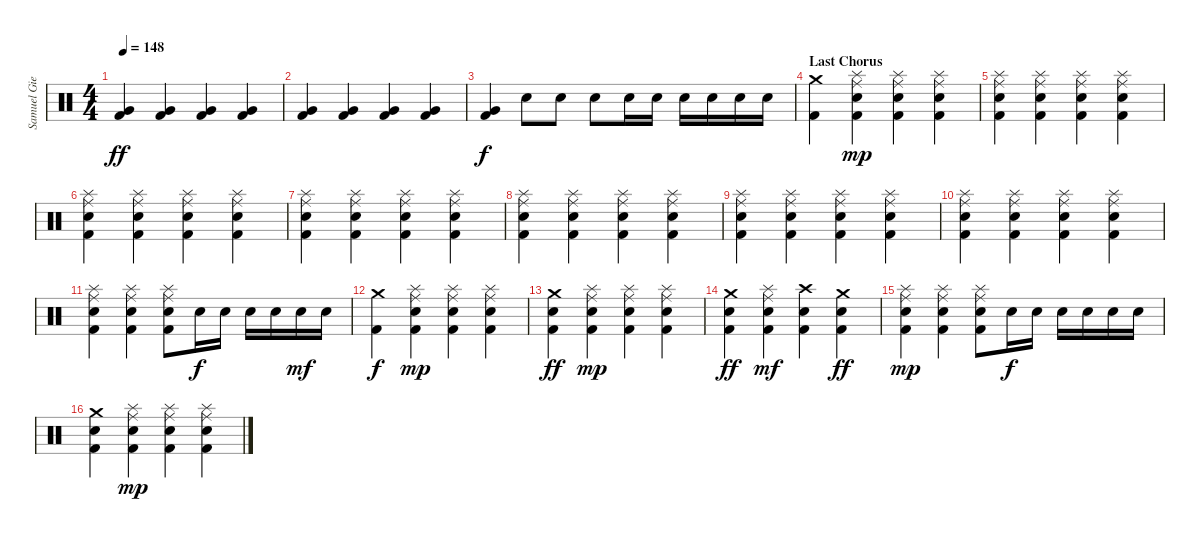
\track ("Samuel Giers - Drum" "Samuel Gie") {instrument percussion}
\staff {score}
\articulation defaults
\ts (4 4)
\tempo 148
\clef neutral
\ks c
("Very Low Tom (hit)" "Kick (hit) 2").4{dy ff} ("Very Low Tom (hit)" "Kick (hit) 2").4 ("Very Low Tom (hit)" "Kick (hit) 2").4 ("Very Low Tom (hit)" "Kick (hit) 2").4 |
("Very Low Tom (hit)" "Kick (hit) 2").4 ("Very Low Tom (hit)" "Kick (hit) 2").4 ("Very Low Tom (hit)" "Kick (hit) 2").4 ("Very Low Tom (hit)" "Kick (hit) 2").4 |
("Very Low Tom (hit)" "Kick (hit) 2").4{dy f} "Snare (hit) 2".8 "Snare (hit) 2".8 "Snare (hit) 2".8 "Snare (hit) 2".16 "Snare (hit) 2".16 "Snare (hit) 2".16 "Snare (hit) 2".16 "Snare (hit) 2".16 "Snare (hit) 2".16 |
\section ("" "Last Chorus")
("Crash medium (hit)" "Kick (hit) 2").4 ("Ride (middle)" "Splash (hit)" "Snare (hit) 2" "Kick (hit) 2").4{dy mp} ("Ride (middle)" "Splash (hit)" "Snare (hit) 2" "Kick (hit) 2").4 ("Ride (middle)" "Splash (hit)" "Snare (hit) 2" "Kick (hit) 2").4 |
("Ride (middle)" "Splash (hit)" "Snare (hit) 2" "Kick (hit) 2").4 ("Ride (middle)" "Splash (hit)" "Snare (hit) 2" "Kick (hit) 2").4 ("Ride (middle)" "Splash (hit)" "Snare (hit) 2" "Kick (hit) 2").4 ("Ride (middle)" "Splash (hit)" "Snare (hit) 2" "Kick (hit) 2").4 |
("Ride (middle)" "Splash (hit)" "Snare (hit) 2" "Kick (hit) 2").4 ("Ride (middle)" "Splash (hit)" "Snare (hit) 2" "Kick (hit) 2").4 ("Ride (middle)" "Splash (hit)" "Snare (hit) 2" "Kick (hit) 2").4 ("Ride (middle)" "Splash (hit)" "Snare (hit) 2" "Kick (hit) 2").4 |
("Ride (middle)" "Splash (hit)" "Snare (hit) 2" "Kick (hit) 2").4 ("Ride (middle)" "Splash (hit)" "Snare (hit) 2" "Kick (hit) 2").4 ("Ride (middle)" "Splash (hit)" "Snare (hit) 2" "Kick (hit) 2").4 ("Ride (middle)" "Splash (hit)" "Snare (hit) 2" "Kick (hit) 2").4 |
("Ride (middle)" "Splash (hit)" "Snare (hit) 2" "Kick (hit) 2").4 ("Ride (middle)" "Splash (hit)" "Snare (hit) 2" "Kick (hit) 2").4 ("Ride (middle)" "Splash (hit)" "Snare (hit) 2" "Kick (hit) 2").4 ("Ride (middle)" "Splash (hit)" "Snare (hit) 2" "Kick (hit) 2").4 |
("Ride (middle)" "Splash (hit)" "Snare (hit) 2" "Kick (hit) 2").4 ("Ride (middle)" "Splash (hit)" "Snare (hit) 2" "Kick (hit) 2").4 ("Ride (middle)" "Splash (hit)" "Snare (hit) 2" "Kick (hit) 2").4 ("Ride (middle)" "Splash (hit)" "Snare (hit) 2" "Kick (hit) 2").4 |
("Ride (middle)" "Splash (hit)" "Snare (hit) 2" "Kick (hit) 2").4 ("Ride (middle)" "Splash (hit)" "Snare (hit) 2" "Kick (hit) 2").4 ("Ride (middle)" "Splash (hit)" "Snare (hit) 2" "Kick (hit) 2").4 ("Ride (middle)" "Splash (hit)" "Snare (hit) 2" "Kick (hit) 2").4 |
("Ride (middle)" "Splash (hit)" "Snare (hit) 2" "Kick (hit) 2").4 ("Ride (middle)" "Splash (hit)" "Snare (hit) 2" "Kick (hit) 2").4 ("Ride (middle)" "Splash (hit)" "Snare (hit) 2" "Kick (hit) 2").8 "Snare (hit) 2".16{dy f} "Snare (hit) 2".16 "Snare (hit) 2".16 "Snare (hit) 2".16 "Snare (hit) 2".16{dy mf} "Snare (hit) 2".16 |
("Crash medium (hit)" "Kick (hit) 2").4{dy f} ("Ride (middle)" "Splash (hit)" "Snare (hit) 2" "Kick (hit) 2").4{dy mp} ("Ride (middle)" "Splash (hit)" "Snare (hit) 2" "Kick (hit) 2").4 ("Ride (middle)" "Splash (hit)" "Snare (hit) 2" "Kick (hit) 2").4 |
("Crash medium (hit)" "Snare (hit) 2" "Kick (hit) 2").4{dy ff} ("Ride (middle)" "Splash (hit)" "Snare (hit) 2" "Kick (hit) 2").4{dy mp} ("Ride (middle)" "Splash (hit)" "Snare (hit) 2" "Kick (hit) 2").4 ("Ride (middle)" "Splash (hit)" "Snare (hit) 2" "Kick (hit) 2").4 |
("Crash medium (hit)" "Snare (hit) 2" "Kick (hit) 2").4{dy ff} ("Ride (middle)" "Splash (hit)" "Snare (hit) 2" "Kick (hit) 2").4{dy mf} ("Crash high (hit)" "Snare (hit) 2" "Kick (hit) 2").4 ("Crash medium (hit)" "Snare (hit) 2" "Kick (hit) 2").4{dy ff} |
("Ride (middle)" "Splash (hit)" "Snare (hit) 2" "Kick (hit) 2").4{dy mp} ("Ride (middle)" "Splash (hit)" "Snare (hit) 2" "Kick (hit) 2").4 ("Ride (middle)" "Splash (hit)" "Snare (hit) 2" "Kick (hit) 2").8 "Snare (hit) 2".16{dy f} "Snare (hit) 2".16 "Snare (hit) 2".16 "Snare (hit) 2".16 "Snare (hit) 2".16 "Snare (hit) 2".16 |
("Crash medium (hit)" "Snare (hit) 2" "Kick (hit) 2").4 ("Ride (middle)" "Splash (hit)" "Snare (hit) 2" "Kick (hit) 2").4{dy mp} ("Ride (middle)" "Splash (hit)" "Snare (hit) 2" "Kick (hit) 2").4 ("Ride (middle)" "Splash (hit)" "Snare (hit) 2" "Kick (hit) 2").4
